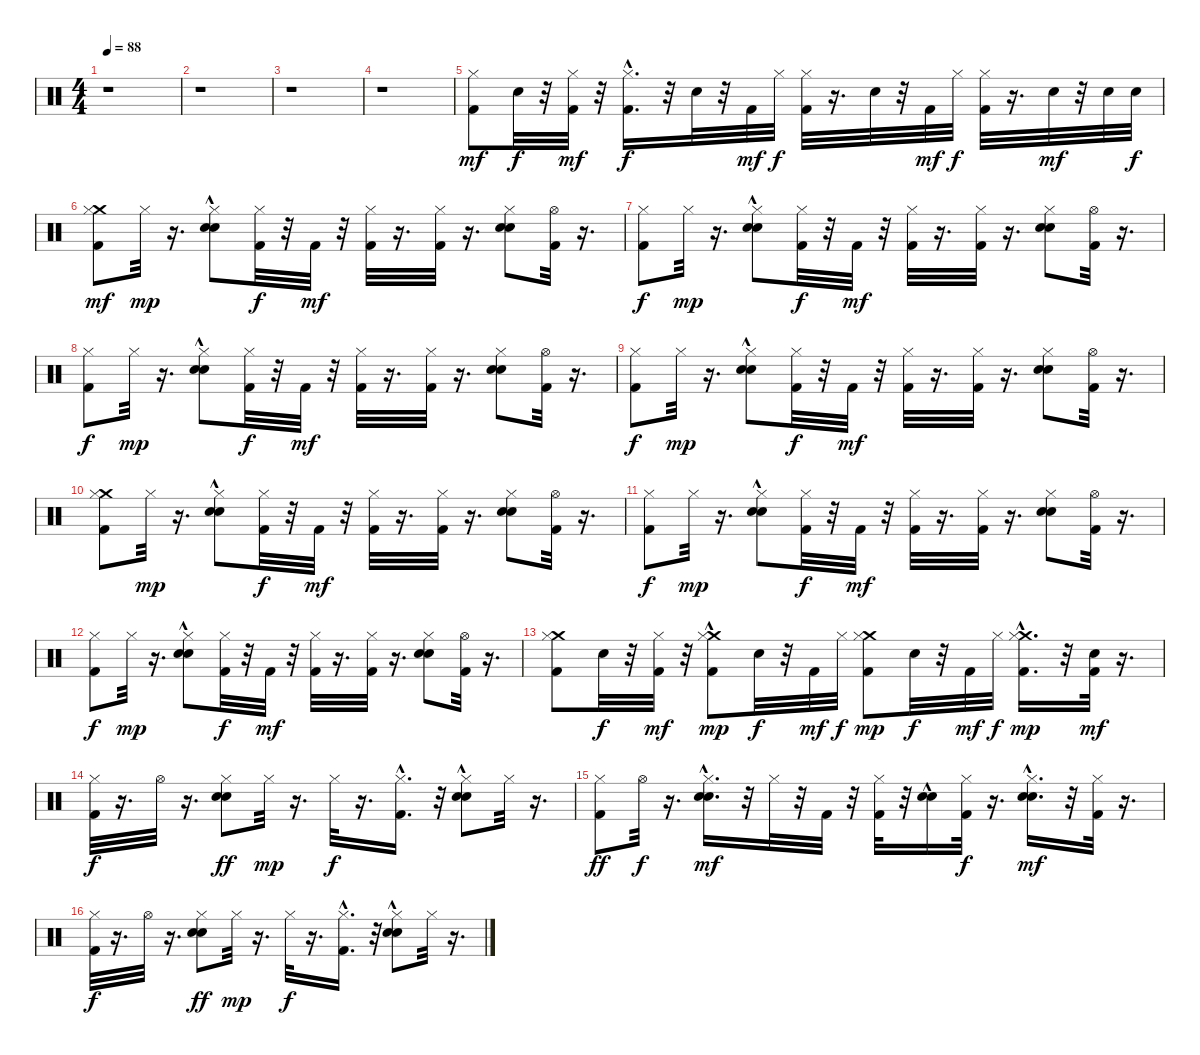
\track "" {instrument percussion}
\staff {score}
\articulation defaults
\ts (4 4)
\tempo 88
\clef neutral
\ks c
r.1{dy mf} |
r.1 |
r.1 |
r.1 |
("Hi-Hat (closed)" "Kick (hit) 2").8 "Electric Snare (hit)".32{dy f} r.32 ("Hi-Hat (closed)" "Kick (hit) 2").32{dy mf} r.32 ("Kick (hit) 2"{hac} "Hi-Hat (closed)"{hac}).16{d dy f} r.32 "Electric Snare (hit)".32 r.32 "Kick (hit) 2".32{dy mf} "Hi-Hat (closed)".32{dy f} ("Kick (hit) 2" "Hi-Hat (closed)").32 r.16{d} "Electric Snare (hit)".32 r.32 "Kick (hit) 2".32{dy mf} "Hi-Hat (closed)".32{dy f} ("Hi-Hat (closed)" "Kick (hit) 2").32 r.16{d} "Electric Snare (hit)".32{dy mf} r.32 "Electric Snare (hit)".32 "Electric Snare (hit)".32{dy f} |
("Crash medium (hit)" "Hi-Hat (closed)" "Kick (hit) 2").8{dy mf} "Hi-Hat (closed)".32{dy mp} r.16{d} ("Hi-Hat (closed)" "Hand Clap (hit)" "Electric Snare (hit)"{hac}).8 ("Hi-Hat (closed)" "Kick (hit) 2").32{dy f} r.32 "Kick (hit) 2".32{dy mf} r.32 ("Kick (hit) 2" "Hi-Hat (closed)").32 r.16{d} ("Hi-Hat (closed)" "Kick (hit) 2").32 r.16{d} ("Electric Snare (hit)" "Hi-Hat (closed)" "Hand Clap (hit)").8 ("Hi-Hat (open)" "Kick (hit) 2").32 r.16{d} |
("Hi-Hat (closed)" "Kick (hit) 2").8{dy f} "Hi-Hat (closed)".32{dy mp} r.16{d} ("Hi-Hat (closed)" "Hand Clap (hit)" "Electric Snare (hit)"{hac}).8 ("Kick (hit) 2" "Hi-Hat (closed)").32{dy f} r.32 "Kick (hit) 2".32{dy mf} r.32 ("Kick (hit) 2" "Hi-Hat (closed)").32 r.16{d} ("Kick (hit) 2" "Hi-Hat (closed)").32 r.16{d} ("Electric Snare (hit)" "Hi-Hat (closed)" "Hand Clap (hit)").8 ("Hi-Hat (open)" "Kick (hit) 2").32 r.16{d} |
("Hi-Hat (closed)" "Kick (hit) 2").8{dy f} "Hi-Hat (closed)".32{dy mp} r.16{d} ("Hi-Hat (closed)" "Hand Clap (hit)" "Electric Snare (hit)"{hac}).8 ("Hi-Hat (closed)" "Kick (hit) 2").32{dy f} r.32 "Kick (hit) 2".32{dy mf} r.32 ("Kick (hit) 2" "Hi-Hat (closed)").32 r.16{d} ("Hi-Hat (closed)" "Kick (hit) 2").32 r.16{d} ("Electric Snare (hit)" "Hi-Hat (closed)" "Hand Clap (hit)").8 ("Hi-Hat (open)" "Kick (hit) 2").32 r.16{d} |
("Hi-Hat (closed)" "Kick (hit) 2").8{dy f} "Hi-Hat (closed)".32{dy mp} r.16{d} ("Hi-Hat (closed)" "Hand Clap (hit)" "Electric Snare (hit)"{hac}).8 ("Kick (hit) 2" "Hi-Hat (closed)").32{dy f} r.32 "Kick (hit) 2".32{dy mf} r.32 ("Kick (hit) 2" "Hi-Hat (closed)").32 r.16{d} ("Kick (hit) 2" "Hi-Hat (closed)").32 r.16{d} ("Electric Snare (hit)" "Hi-Hat (closed)" "Hand Clap (hit)").8 ("Hi-Hat (open)" "Kick (hit) 2").32 r.16{d} |
("Crash medium (hit)" "Hi-Hat (closed)" "Kick (hit) 2").8 "Hi-Hat (closed)".32{dy mp} r.16{d} ("Hi-Hat (closed)" "Hand Clap (hit)" "Electric Snare (hit)"{hac}).8 ("Hi-Hat (closed)" "Kick (hit) 2").32{dy f} r.32 "Kick (hit) 2".32{dy mf} r.32 ("Kick (hit) 2" "Hi-Hat (closed)").32 r.16{d} ("Hi-Hat (closed)" "Kick (hit) 2").32 r.16{d} ("Electric Snare (hit)" "Hi-Hat (closed)" "Hand Clap (hit)").8 ("Hi-Hat (open)" "Kick (hit) 2").32 r.16{d} |
("Hi-Hat (closed)" "Kick (hit) 2").8{dy f} "Hi-Hat (closed)".32{dy mp} r.16{d} ("Hi-Hat (closed)" "Hand Clap (hit)" "Electric Snare (hit)"{hac}).8 ("Kick (hit) 2" "Hi-Hat (closed)").32{dy f} r.32 "Kick (hit) 2".32{dy mf} r.32 ("Kick (hit) 2" "Hi-Hat (closed)").32 r.16{d} ("Kick (hit) 2" "Hi-Hat (closed)").32 r.16{d} ("Electric Snare (hit)" "Hi-Hat (closed)" "Hand Clap (hit)").8 ("Hi-Hat (open)" "Kick (hit) 2").32 r.16{d} |
("Hi-Hat (closed)" "Kick (hit) 2").8{dy f} "Hi-Hat (closed)".32{dy mp} r.16{d} ("Hi-Hat (closed)" "Hand Clap (hit)" "Electric Snare (hit)"{hac}).8 ("Hi-Hat (closed)" "Kick (hit) 2").32{dy f} r.32 "Kick (hit) 2".32{dy mf} r.32 ("Kick (hit) 2" "Hi-Hat (closed)").32 r.16{d} ("Hi-Hat (closed)" "Kick (hit) 2").32 r.16{d} ("Electric Snare (hit)" "Hi-Hat (closed)" "Hand Clap (hit)").8 ("Hi-Hat (open)" "Kick (hit) 2").32 r.16{d} |
("Crash medium (hit)" "Hi-Hat (closed)" "Kick (hit) 2").8 "Electric Snare (hit)".32{dy f} r.32 ("Hi-Hat (closed)" "Kick (hit) 2").32{dy mf} r.32 ("Crash medium (hit)" "Kick (hit) 2"{hac} "Hi-Hat (closed)"{hac}).8{dy mp} "Electric Snare (hit)".32{dy f} r.32 "Kick (hit) 2".32{dy mf} "Hi-Hat (closed)".32{dy f} ("Crash medium (hit)" "Kick (hit) 2" "Hi-Hat (closed)").8{dy mp} "Electric Snare (hit)".32{dy f} r.32 "Kick (hit) 2".32{dy mf} "Hi-Hat (closed)".32{dy f} ("Crash medium (hit)"{hac} "Hi-Hat (closed)" "Kick (hit) 2").16{d dy mp} r.32 ("Electric Snare (hit)" "Kick (hit) 2").32{dy mf} r.16{d} |
("Hi-Hat (closed)" "Kick (hit) 2").32{dy f} r.16{d} "Hi-Hat (open)".32 r.16{d} ("Hand Clap (hit)" "Electric Snare (hit)" "Hi-Hat (closed)").8{dy ff} "Hi-Hat (closed)".32{dy mp} r.16{d} "Hi-Hat (closed)".32{dy f} r.16{d} ("Kick (hit) 2"{hac} "Hi-Hat (closed)").16{d} r.32 ("Hi-Hat (closed)" "Electric Snare (hit)"{hac} "Hand Clap (hit)"{hac}).8 "Hi-Hat (closed)".32 r.16{d} |
("Hi-Hat (closed)" "Kick (hit) 2").8{dy ff} "Hi-Hat (open)".32{dy f} r.16{d} ("Hi-Hat (closed)" "Hand Clap (hit)"{hac} "Electric Snare (hit)"{hac}).16{d dy mf} r.32 "Hi-Hat (closed)".32 r.32 "Kick (hit) 2".32 r.32 ("Hi-Hat (closed)" "Kick (hit) 2").32 r.32 ("Hand Clap (hit)"{hac} "Electric Snare (hit)").16 ("Kick (hit) 2" "Hi-Hat (closed)").32{dy f} r.16{d} ("Hi-Hat (closed)" "Hand Clap (hit)"{hac} "Electric Snare (hit)").16{d dy mf} r.32 ("Hi-Hat (closed)" "Kick (hit) 2").32 r.16{d} |
("Hi-Hat (closed)" "Kick (hit) 2").32{dy f} r.16{d} "Hi-Hat (open)".32 r.16{d} ("Hand Clap (hit)" "Electric Snare (hit)" "Hi-Hat (closed)").8{dy ff} "Hi-Hat (closed)".32{dy mp} r.16{d} "Hi-Hat (closed)".32{dy f} r.16{d} ("Kick (hit) 2"{hac} "Hi-Hat (closed)").16{d} r.32 ("Hi-Hat (closed)" "Electric Snare (hit)"{hac} "Hand Clap (hit)"{hac}).8 "Hi-Hat (closed)".32 r.16{d}
